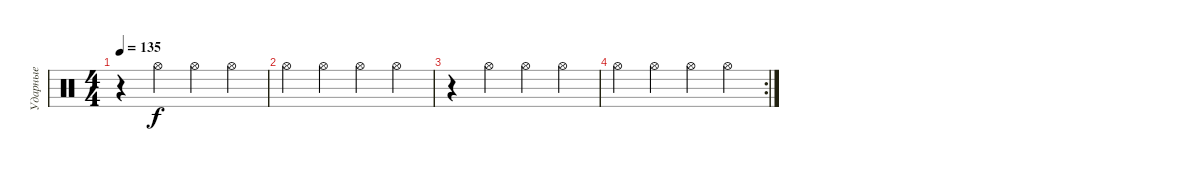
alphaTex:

\track ("Ударные" "Ударные") {instrument percussion}
\staff {score}
\articulation defaults
\ts (4 4)
\tempo 135
\clef neutral
\ks c
r.4{dy f} "Hi-Hat (open)".4 "Hi-Hat (open)".4 "Hi-Hat (open)".4 |
"Hi-Hat (open)".4 "Hi-Hat (open)".4 "Hi-Hat (open)".4 "Hi-Hat (open)".4 |
r.4 "Hi-Hat (open)".4 "Hi-Hat (open)".4 "Hi-Hat (open)".4 |
\rc 2 "Hi-Hat (open)".4 "Hi-Hat (open)".4 "Hi-Hat (open)".4 "Hi-Hat (open)".4
